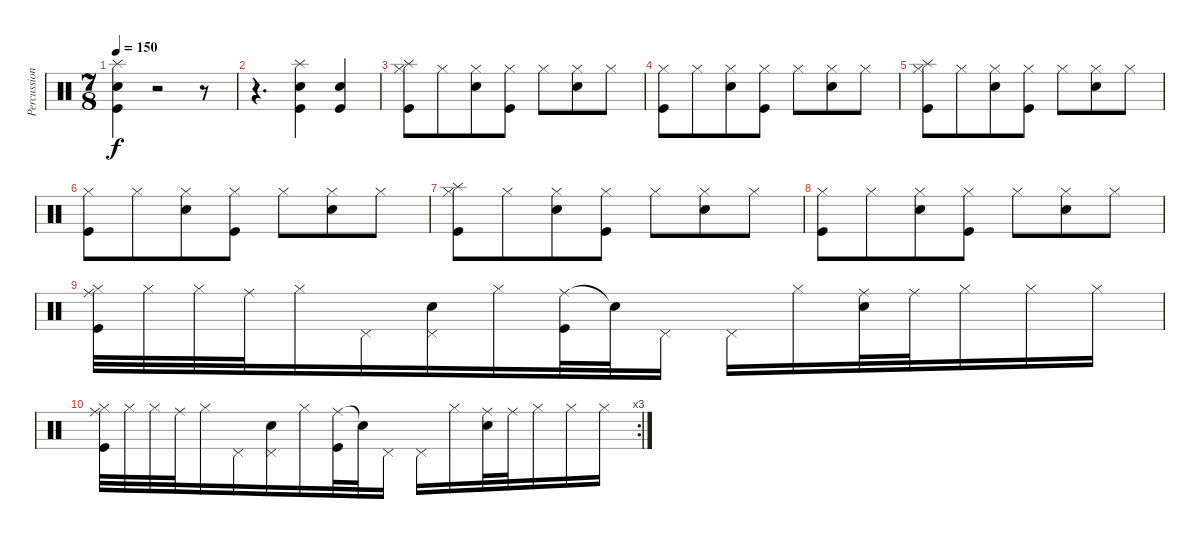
\track ("Percussion" "Percussion") {instrument percussion}
\staff {score}
\articulation defaults
\ts (7 8)
\tempo 150
\clef neutral
\ks c
("Splash (hit)" "Snare (hit) 2" "Kick (hit)").4{dy f} r.2 r.8 |
r.4{d} ("Splash (hit)" "Snare (hit) 2" "Kick (hit)").4 ("Snare (hit) 2" "Kick (hit)").4 |
("Splash (hit)" "Kick (hit)" "Hi-Hat (closed)").8 "Hi-Hat (closed)".8 ("Snare (hit) 2" "Hi-Hat (closed)").8 ("Kick (hit)" "Hi-Hat (closed)").8 "Hi-Hat (closed)".8 ("Snare (hit) 2" "Hi-Hat (closed)").8 "Hi-Hat (closed)".8 |
("Kick (hit)" "Hi-Hat (closed)").8 "Hi-Hat (closed)".8 ("Snare (hit) 2" "Hi-Hat (closed)").8 ("Kick (hit)" "Hi-Hat (closed)").8 "Hi-Hat (closed)".8 ("Snare (hit) 2" "Hi-Hat (closed)").8 "Hi-Hat (closed)".8 |
("Splash (hit)" "Kick (hit)" "Hi-Hat (closed)").8 "Hi-Hat (closed)".8 ("Snare (hit) 2" "Hi-Hat (closed)").8 ("Kick (hit)" "Hi-Hat (closed)").8 "Hi-Hat (closed)".8 ("Snare (hit) 2" "Hi-Hat (closed)").8 "Hi-Hat (closed)".8 |
("Kick (hit)" "Hi-Hat (closed)").8 "Hi-Hat (closed)".8 ("Snare (hit) 2" "Hi-Hat (closed)").8 ("Kick (hit)" "Hi-Hat (closed)").8 "Hi-Hat (closed)".8 ("Snare (hit) 2" "Hi-Hat (closed)").8 "Hi-Hat (closed)".8 |
("Splash (hit)" "Kick (hit)" "Hi-Hat (closed)").8 "Hi-Hat (closed)".8 ("Snare (hit) 2" "Hi-Hat (closed)").8 ("Kick (hit)" "Hi-Hat (closed)").8 "Hi-Hat (closed)".8 ("Snare (hit) 2" "Hi-Hat (closed)").8 "Hi-Hat (closed)".8 |
("Kick (hit)" "Hi-Hat (closed)").8 "Hi-Hat (closed)".8 ("Snare (hit) 2" "Hi-Hat (closed)").8 ("Kick (hit)" "Hi-Hat (closed)").8 "Hi-Hat (closed)".8 ("Snare (hit) 2" "Hi-Hat (closed)").8 "Hi-Hat (closed)".8 |
("Hi-Hat (closed)" "Ride (middle)" "Kick (hit)").32 "Hi-Hat (closed)".32 "Hi-Hat (closed)".32 "Ride (middle)".32 "Hi-Hat (closed)".16 "Pedal Hi-Hat (hit)".16 ("Pedal Hi-Hat (hit)" "Snare (hit) 2").16 "Hi-Hat (closed)".16 ("Ride (middle)" "Kick (hit)").32 "Snare (hit)"{t}.32 "Pedal Hi-Hat (hit)".16 "Pedal Hi-Hat (hit)".16 "Hi-Hat (closed)".16 ("Ride (middle)" "Snare (hit) 2").32 "Ride (middle)".32 "Hi-Hat (closed)".16 "Hi-Hat (closed)".16 "Hi-Hat (closed)".16 |
\rc 3
("Hi-Hat (closed)" "Ride (middle)" "Kick (hit)").32 "Hi-Hat (closed)".32 "Hi-Hat (closed)".32 "Ride (middle)".32 "Hi-Hat (closed)".16 "Pedal Hi-Hat (hit)".16 ("Pedal Hi-Hat (hit)" "Snare (hit) 2").16 "Hi-Hat (closed)".16 ("Ride (middle)" "Kick (hit)").32 "Snare (hit)"{t}.32 "Pedal Hi-Hat (hit)".16 "Pedal Hi-Hat (hit)".16 "Hi-Hat (closed)".16 ("Ride (middle)" "Snare (hit) 2").32 "Ride (middle)".32 "Hi-Hat (closed)".16 "Hi-Hat (closed)".16 "Hi-Hat (closed)".16
